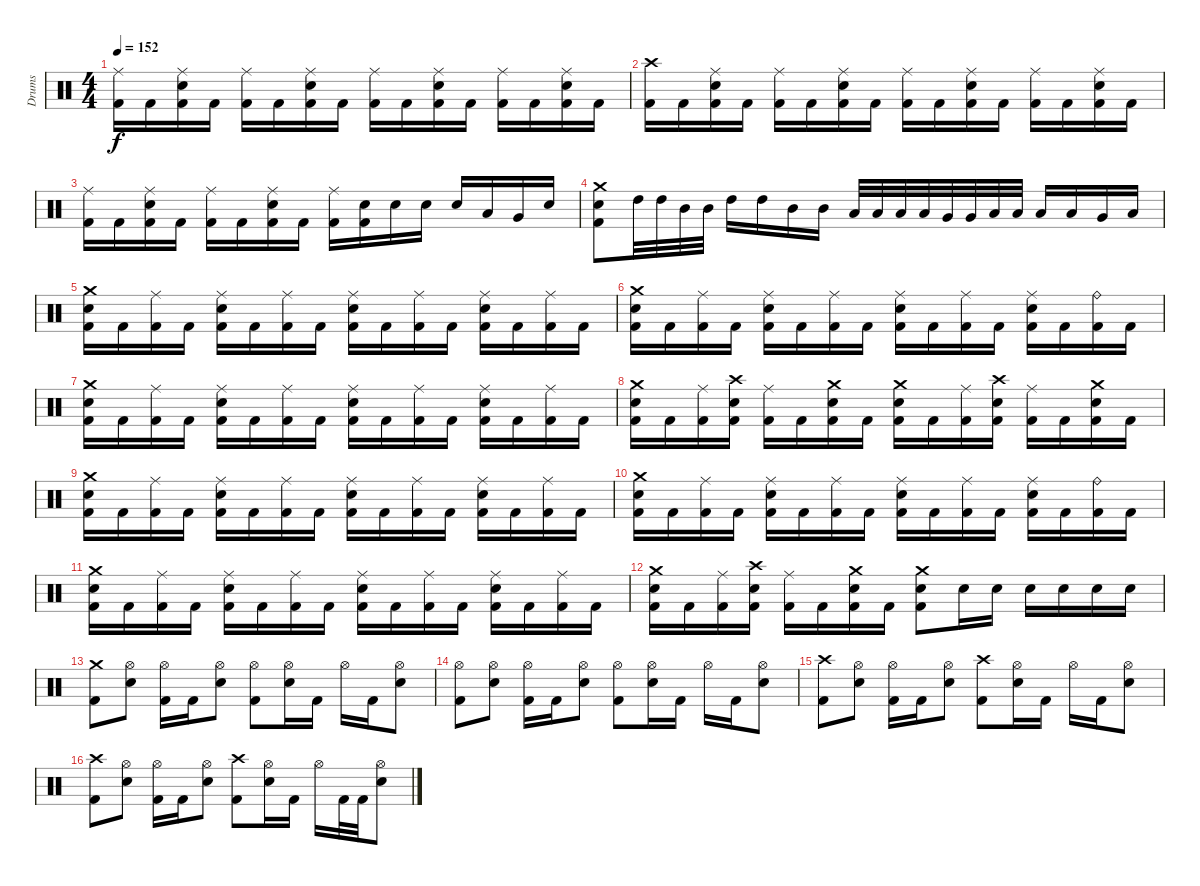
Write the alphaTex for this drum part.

\track ("Drums" "Drums") {instrument percussion}
\staff {score}
\articulation defaults
\ts (4 4)
\tempo 152
\clef neutral
\ks c
("Ride (middle)" "Kick (hit) 2").16{dy f} "Kick (hit) 2".16 ("Ride (middle)" "Snare (hit) 2" "Kick (hit) 2").16 "Kick (hit) 2".16 ("Ride (middle)" "Kick (hit) 2").16 "Kick (hit) 2".16 ("Ride (middle)" "Snare (hit) 2" "Kick (hit) 2").16 "Kick (hit) 2".16 ("Ride (middle)" "Kick (hit) 2").16 "Kick (hit) 2".16 ("Ride (middle)" "Snare (hit) 2" "Kick (hit) 2").16 "Kick (hit) 2".16 ("Ride (middle)" "Kick (hit) 2").16 "Kick (hit) 2".16 ("Ride (middle)" "Snare (hit) 2" "Kick (hit) 2").16 "Kick (hit) 2".16 |
("Crash high (hit)" "Kick (hit) 2").16 "Kick (hit) 2".16 ("Ride (middle)" "Snare (hit) 2" "Kick (hit) 2").16 "Kick (hit) 2".16 ("Ride (middle)" "Kick (hit) 2").16 "Kick (hit) 2".16 ("Ride (middle)" "Snare (hit) 2" "Kick (hit) 2").16 "Kick (hit) 2".16 ("Ride (middle)" "Kick (hit) 2").16 "Kick (hit) 2".16 ("Ride (middle)" "Snare (hit) 2" "Kick (hit) 2").16 "Kick (hit) 2".16 ("Ride (middle)" "Kick (hit) 2").16 "Kick (hit) 2".16 ("Ride (middle)" "Snare (hit) 2" "Kick (hit) 2").16 "Kick (hit) 2".16 |
("Ride (middle)" "Kick (hit) 2").16 "Kick (hit) 2".16 ("Ride (middle)" "Snare (hit) 2" "Kick (hit) 2").16 "Kick (hit) 2".16 ("Ride (middle)" "Kick (hit) 2").16 "Kick (hit) 2".16 ("Ride (middle)" "Snare (hit) 2" "Kick (hit) 2").16 "Kick (hit) 2".16 ("Ride (middle)" "Kick (hit) 2").16 ("Snare (hit) 2" "Kick (hit) 2").16 "Snare (hit) 2".16 "Snare (hit) 2".16 "Snare (hit) 2".16 "Low Tom (hit)".16 "Very Low Tom (hit)".16 "Snare (hit) 2".16 |
("Crash medium (hit)" "Snare (hit) 2" "Kick (hit) 2").8 "High Tom (hit)".32 "High Tom (hit)".32 "Mid Tom (hit)".32 "Mid Tom (hit)".32 "High Tom (hit)".16 "High Tom (hit)".16 "Mid Tom (hit)".16 "Mid Tom (hit)".16 "Low Tom (hit)".32 "Low Tom (hit)".32 "Low Tom (hit)".32 "Low Tom (hit)".32 "Very Low Tom (hit)".32 "Very Low Tom (hit)".32 "Low Floor Tom (hit)".32 "Low Floor Tom (hit)".32 "Low Tom (hit)".16 "Low Tom (hit)".16 "Very Low Tom (hit)".16 "Low Floor Tom (hit)".16 |
("Crash medium (hit)" "Snare (hit) 2" "Kick (hit) 2").16 "Kick (hit) 2".16 ("Ride (middle)" "Kick (hit) 2").16 "Kick (hit) 2".16 ("Ride (middle)" "Snare (hit) 2" "Kick (hit) 2").16 "Kick (hit) 2".16 ("Ride (middle)" "Kick (hit) 2").16 "Kick (hit) 2".16 ("Ride (middle)" "Snare (hit) 2" "Kick (hit) 2").16 "Kick (hit) 2".16 ("Ride (middle)" "Kick (hit) 2").16 "Kick (hit) 2".16 ("Ride (middle)" "Snare (hit) 2" "Kick (hit) 2").16 "Kick (hit) 2".16 ("Ride (middle)" "Kick (hit) 2").16 "Kick (hit) 2".16 |
("Crash medium (hit)" "Snare (hit) 2" "Kick (hit) 2").16 "Kick (hit) 2".16 ("Ride (middle)" "Kick (hit) 2").16 "Kick (hit) 2".16 ("Ride (middle)" "Snare (hit) 2" "Kick (hit) 2").16 "Kick (hit) 2".16 ("Ride (middle)" "Kick (hit) 2").16 "Kick (hit) 2".16 ("Ride (middle)" "Snare (hit) 2" "Kick (hit) 2").16 "Kick (hit) 2".16 ("Ride (middle)" "Kick (hit) 2").16 "Kick (hit) 2".16 ("Ride (middle)" "Snare (hit) 2" "Kick (hit) 2").16 "Kick (hit) 2".16 ("Ride (bell)" "Kick (hit) 2").16 "Kick (hit) 2".16 |
("Crash medium (hit)" "Snare (hit) 2" "Kick (hit) 2").16 "Kick (hit) 2".16 ("Ride (middle)" "Kick (hit) 2").16 "Kick (hit) 2".16 ("Ride (middle)" "Snare (hit) 2" "Kick (hit) 2").16 "Kick (hit) 2".16 ("Ride (middle)" "Kick (hit) 2").16 "Kick (hit) 2".16 ("Ride (middle)" "Snare (hit) 2" "Kick (hit) 2").16 "Kick (hit) 2".16 ("Ride (middle)" "Kick (hit) 2").16 "Kick (hit) 2".16 ("Ride (middle)" "Snare (hit) 2" "Kick (hit) 2").16 "Kick (hit) 2".16 ("Ride (middle)" "Kick (hit) 2").16 "Kick (hit) 2".16 |
("Crash medium (hit)" "Snare (hit) 2" "Kick (hit) 2").16 "Kick (hit) 2".16 ("Ride (middle)" "Kick (hit) 2").16 ("Crash high (hit)" "Snare (hit) 2" "Kick (hit) 2").16 ("Ride (middle)" "Kick (hit) 2").16 "Kick (hit) 2".16 ("Crash medium (hit)" "Snare (hit) 2" "Kick (hit) 2").16 "Kick (hit) 2".16 ("Crash medium (hit)" "Snare (hit) 2" "Kick (hit) 2").16 "Kick (hit) 2".16 ("Ride (middle)" "Kick (hit) 2").16 ("Crash high (hit)" "Snare (hit) 2" "Kick (hit) 2").16 ("Ride (middle)" "Kick (hit) 2").16 "Kick (hit) 2".16 ("Crash medium (hit)" "Snare (hit) 2" "Kick (hit) 2").16 "Kick (hit) 2".16 |
("Crash medium (hit)" "Snare (hit) 2" "Kick (hit) 2").16 "Kick (hit) 2".16 ("Ride (middle)" "Kick (hit) 2").16 "Kick (hit) 2".16 ("Ride (middle)" "Snare (hit) 2" "Kick (hit) 2").16 "Kick (hit) 2".16 ("Ride (middle)" "Kick (hit) 2").16 "Kick (hit) 2".16 ("Ride (middle)" "Snare (hit) 2" "Kick (hit) 2").16 "Kick (hit) 2".16 ("Ride (middle)" "Kick (hit) 2").16 "Kick (hit) 2".16 ("Ride (middle)" "Snare (hit) 2" "Kick (hit) 2").16 "Kick (hit) 2".16 ("Ride (middle)" "Kick (hit) 2").16 "Kick (hit) 2".16 |
("Crash medium (hit)" "Snare (hit) 2" "Kick (hit) 2").16 "Kick (hit) 2".16 ("Ride (middle)" "Kick (hit) 2").16 "Kick (hit) 2".16 ("Ride (middle)" "Snare (hit) 2" "Kick (hit) 2").16 "Kick (hit) 2".16 ("Ride (middle)" "Kick (hit) 2").16 "Kick (hit) 2".16 ("Ride (middle)" "Snare (hit) 2" "Kick (hit) 2").16 "Kick (hit) 2".16 ("Ride (middle)" "Kick (hit) 2").16 "Kick (hit) 2".16 ("Ride (middle)" "Snare (hit) 2" "Kick (hit) 2").16 "Kick (hit) 2".16 ("Ride (bell)" "Kick (hit) 2").16 "Kick (hit) 2".16 |
("Crash medium (hit)" "Snare (hit) 2" "Kick (hit) 2").16 "Kick (hit) 2".16 ("Ride (middle)" "Kick (hit) 2").16 "Kick (hit) 2".16 ("Ride (middle)" "Snare (hit) 2" "Kick (hit) 2").16 "Kick (hit) 2".16 ("Ride (middle)" "Kick (hit) 2").16 "Kick (hit) 2".16 ("Ride (middle)" "Snare (hit) 2" "Kick (hit) 2").16 "Kick (hit) 2".16 ("Ride (middle)" "Kick (hit) 2").16 "Kick (hit) 2".16 ("Ride (middle)" "Snare (hit) 2" "Kick (hit) 2").16 "Kick (hit) 2".16 ("Ride (middle)" "Kick (hit) 2").16 "Kick (hit) 2".16 |
("Crash medium (hit)" "Snare (hit) 2" "Kick (hit) 2").16 "Kick (hit) 2".16 ("Ride (middle)" "Kick (hit) 2").16 ("Crash high (hit)" "Snare (hit) 2" "Kick (hit) 2").16 ("Ride (middle)" "Kick (hit) 2").16 "Kick (hit) 2".16 ("Crash medium (hit)" "Snare (hit) 2" "Kick (hit) 2").16 "Kick (hit) 2".16 ("Crash medium (hit)" "Snare (hit) 2" "Kick (hit) 2").8 "Snare (hit) 2".16 "Snare (hit) 2".16 "Snare (hit) 2".16 "Snare (hit) 2".16 "Snare (hit) 2".16 "Snare (hit) 2".16 |
("Crash medium (hit)" "Kick (hit) 2").8 ("Hi-Hat (open)" "Snare (hit) 2").8 ("Hi-Hat (open)" "Kick (hit) 2").16 "Kick (hit) 2".16 ("Hi-Hat (open)" "Snare (hit) 2").8 ("Hi-Hat (open)" "Kick (hit) 2").8 ("Hi-Hat (open)" "Snare (hit) 2").16 "Kick (hit) 2".16 "Hi-Hat (open)".16 "Kick (hit) 2".16 ("Hi-Hat (open)" "Snare (hit) 2").8 |
("Hi-Hat (open)" "Kick (hit) 2").8 ("Hi-Hat (open)" "Snare (hit) 2").8 ("Hi-Hat (open)" "Kick (hit) 2").16 "Kick (hit) 2".16 ("Hi-Hat (open)" "Snare (hit) 2").8 ("Hi-Hat (open)" "Kick (hit) 2").8 ("Hi-Hat (open)" "Snare (hit) 2").16 "Kick (hit) 2".16 "Hi-Hat (open)".16 "Kick (hit) 2".16 ("Hi-Hat (open)" "Snare (hit) 2").8 |
("Crash high (hit)" "Kick (hit) 2").8 ("Hi-Hat (open)" "Snare (hit) 2").8 ("Hi-Hat (open)" "Kick (hit) 2").16 "Kick (hit) 2".16 ("Hi-Hat (open)" "Snare (hit) 2").8 ("Crash high (hit)" "Kick (hit) 2").8 ("Hi-Hat (open)" "Snare (hit) 2").16 "Kick (hit) 2".16 "Hi-Hat (open)".16 "Kick (hit) 2".16 ("Hi-Hat (open)" "Snare (hit) 2").8 |
("Crash high (hit)" "Kick (hit) 2").8 ("Hi-Hat (open)" "Snare (hit) 2").8 ("Hi-Hat (open)" "Kick (hit) 2").16 "Kick (hit) 2".16 ("Hi-Hat (open)" "Snare (hit) 2").8 ("Crash high (hit)" "Kick (hit) 2").8 ("Hi-Hat (open)" "Snare (hit) 2").16 "Kick (hit) 2".16 "Hi-Hat (open)".16 "Kick (hit) 2".32 "Kick (hit) 2".32 ("Hi-Hat (open)" "Snare (hit) 2").8
